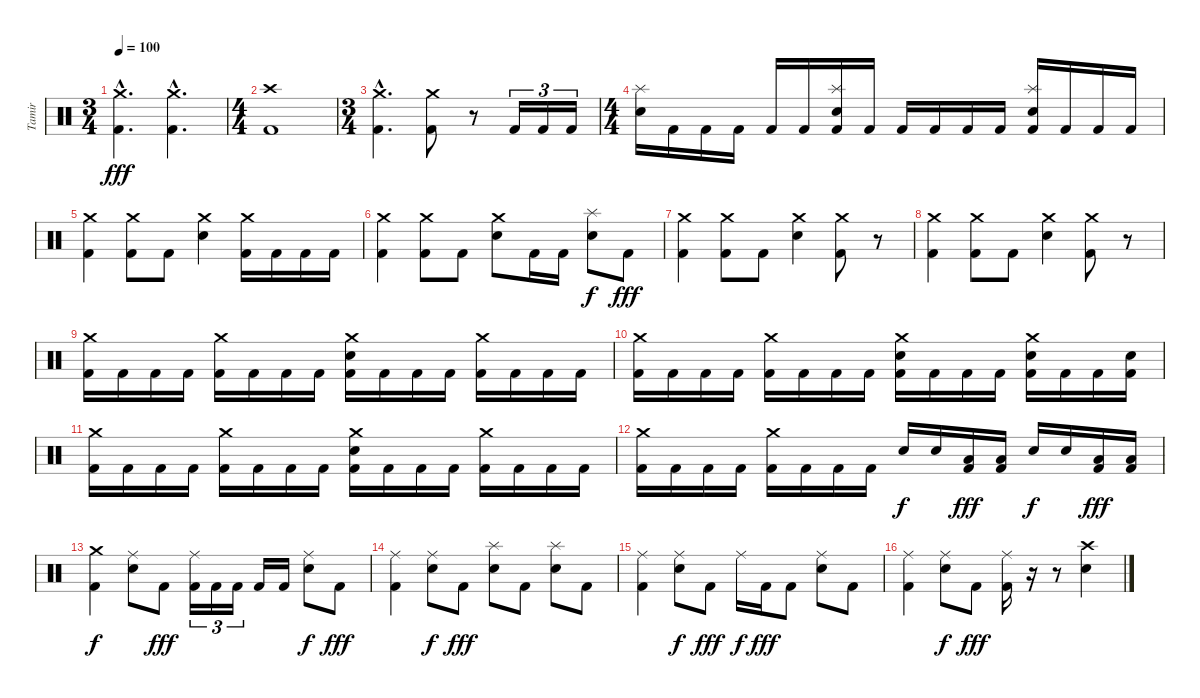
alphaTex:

\track ("Tamir" "Tamir") {instrument percussion}
\staff {score}
\articulation defaults
\ts (3 4)
\tempo 100
\clef neutral
\ks c
("Crash medium (hit)"{hac} "Kick (hit) 2"{hac}).4{d dy fff} ("Crash medium (hit)"{hac} "Kick (hit) 2"{hac}).4{d} |
\ts (4 4)
("Crash high (hit)" "Kick (hit) 2").1 |
\ts (3 4)
("Crash medium (hit)"{hac} "Kick (hit) 2"{hac}).4{d} ("Crash medium (hit)" "Kick (hit) 2").8 r.8 "Kick (hit) 2".16{tu (3 2)} "Kick (hit) 2".16{tu (3 2)} "Kick (hit) 2".16{tu (3 2)} |
\ts (4 4)
("Splash (hit)" "Electric Snare (hit)").16 "Kick (hit) 2".16 "Kick (hit) 2".16 "Kick (hit) 2".16 "Kick (hit) 2".16 "Kick (hit) 2".16 ("Splash (hit)" "Electric Snare (hit)" "Kick (hit) 2").16 "Kick (hit) 2".16 "Kick (hit) 2".16 "Kick (hit) 2".16 "Kick (hit) 2".16 "Kick (hit) 2".16 ("Splash (hit)" "Electric Snare (hit)" "Kick (hit) 2").16 "Kick (hit) 2".16 "Kick (hit) 2".16 "Kick (hit) 2".16 |
("Crash medium (hit)" "Kick (hit) 2").4 ("Crash medium (hit)" "Kick (hit) 2").8 "Kick (hit) 2".8 ("Crash medium (hit)" "Electric Snare (hit)").4 ("Crash medium (hit)" "Kick (hit) 2").16 "Kick (hit) 2".16 "Kick (hit) 2".16 "Kick (hit) 2".16 |
("Crash medium (hit)" "Kick (hit) 2").4 ("Crash medium (hit)" "Kick (hit) 2").8 "Kick (hit) 2".8 ("Crash medium (hit)" "Electric Snare (hit)").8 "Kick (hit) 2".16 "Kick (hit) 2".16 ("Splash (hit)" "Electric Snare (hit)").8{dy f} "Kick (hit) 2".8{dy fff} |
("Crash medium (hit)" "Kick (hit) 2").4 ("Crash medium (hit)" "Kick (hit) 2").8 "Kick (hit) 2".8 ("Crash medium (hit)" "Electric Snare (hit)").4 ("Crash medium (hit)" "Kick (hit) 2").8 r.8 |
("Crash medium (hit)" "Kick (hit) 2").4 ("Crash medium (hit)" "Kick (hit) 2").8 "Kick (hit) 2".8 ("Crash medium (hit)" "Electric Snare (hit)").4 ("Crash medium (hit)" "Kick (hit) 2").8 r.8 |
("Crash medium (hit)" "Kick (hit) 2").16 "Kick (hit) 2".16 "Kick (hit) 2".16 "Kick (hit) 2".16 ("Crash medium (hit)" "Kick (hit) 2").16 "Kick (hit) 2".16 "Kick (hit) 2".16 "Kick (hit) 2".16 ("Crash medium (hit)" "Electric Snare (hit)" "Kick (hit) 2").16 "Kick (hit) 2".16 "Kick (hit) 2".16 "Kick (hit) 2".16 ("Crash medium (hit)" "Kick (hit) 2").16 "Kick (hit) 2".16 "Kick (hit) 2".16 "Kick (hit) 2".16 |
("Crash medium (hit)" "Kick (hit) 2").16 "Kick (hit) 2".16 "Kick (hit) 2".16 "Kick (hit) 2".16 ("Crash medium (hit)" "Kick (hit) 2").16 "Kick (hit) 2".16 "Kick (hit) 2".16 "Kick (hit) 2".16 ("Crash medium (hit)" "Electric Snare (hit)" "Kick (hit) 2").16 "Kick (hit) 2".16 "Kick (hit) 2".16 "Kick (hit) 2".16 ("Crash medium (hit)" "Electric Snare (hit)" "Kick (hit) 2").16 "Kick (hit) 2".16 "Kick (hit) 2".16 ("Electric Snare (hit)" "Kick (hit) 2").16 |
("Crash medium (hit)" "Kick (hit) 2").16 "Kick (hit) 2".16 "Kick (hit) 2".16 "Kick (hit) 2".16 ("Crash medium (hit)" "Kick (hit) 2").16 "Kick (hit) 2".16 "Kick (hit) 2".16 "Kick (hit) 2".16 ("Crash medium (hit)" "Electric Snare (hit)" "Kick (hit) 2").16 "Kick (hit) 2".16 "Kick (hit) 2".16 "Kick (hit) 2".16 ("Crash medium (hit)" "Kick (hit) 2").16 "Kick (hit) 2".16 "Kick (hit) 2".16 "Kick (hit) 2".16 |
("Crash medium (hit)" "Kick (hit) 2").16 "Kick (hit) 2".16 "Kick (hit) 2".16 "Kick (hit) 2".16 ("Crash medium (hit)" "Kick (hit) 2").16 "Kick (hit) 2".16 "Kick (hit) 2".16 "Kick (hit) 2".16 "Electric Snare (hit)".16{dy f} "Electric Snare (hit)".16 ("Low Tom (hit)" "Kick (hit) 2").16{dy fff} ("Low Tom (hit)" "Kick (hit) 2").16 "Electric Snare (hit)".16{dy f} "Electric Snare (hit)".16 ("Low Tom (hit)" "Kick (hit) 2").16{dy fff} ("Low Tom (hit)" "Kick (hit) 2").16 |
("Crash medium (hit)" "Kick (hit) 2").4{dy f} ("Ride (middle)" "Electric Snare (hit)").8 "Kick (hit) 2".8{dy fff} ("Ride (middle)" "Kick (hit) 2").16{tu (3 2)} "Kick (hit) 2".16{tu (3 2)} "Kick (hit) 2".16{tu (3 2)} "Kick (hit) 2".16 "Kick (hit) 2".16 ("Ride (middle)" "Electric Snare (hit)").8{dy f} "Kick (hit) 2".8{dy fff} |
("Ride (middle)" "Kick (hit) 2").4 ("Ride (middle)" "Electric Snare (hit)").8{dy f} "Kick (hit) 2".8{dy fff} ("Splash (hit)" "Electric Snare (hit)").8 "Kick (hit) 2".8 ("Splash (hit)" "Electric Snare (hit)").8 "Kick (hit) 2".8 |
("Ride (middle)" "Kick (hit) 2").4 ("Ride (middle)" "Electric Snare (hit)").8{dy f} "Kick (hit) 2".8{dy fff} "Ride (middle)".16{dy f} "Kick (hit) 2".16{dy fff} "Kick (hit) 2".8 ("Ride (middle)" "Electric Snare (hit)").8 "Kick (hit) 2".8 |
("Ride (middle)" "Kick (hit) 2").4 ("Ride (middle)" "Electric Snare (hit)").8{dy f} "Kick (hit) 2".8{dy fff} ("Ride (middle)" "Kick (hit) 2").16 r.16 r.8 ("Crash high (hit)" "Electric Snare (hit)").4
